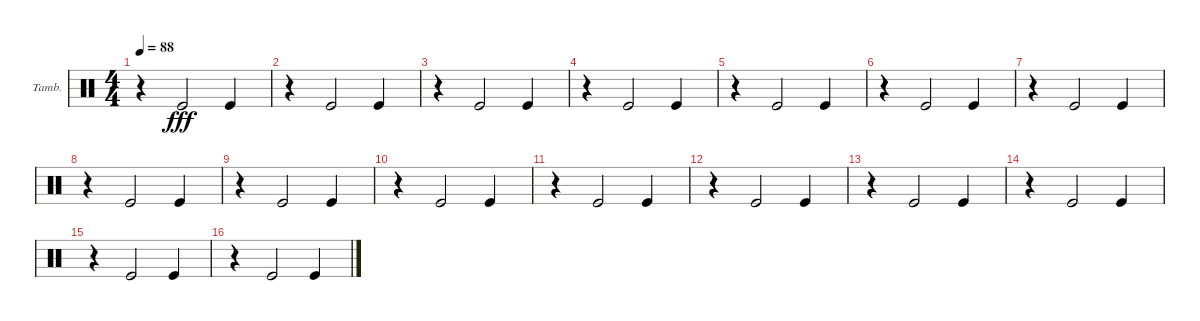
\defaultSystemsLayout 4
\bracketExtendMode groupsimilarinstruments
\firstSystemTrackNameOrientation horizontal
\otherSystemsTrackNameOrientation horizontal
\track ("Helders" "Tamb.") {instrument percussion}
\staff {score}
\articulation defaults
\ts (4 4)
\tempo 88
\clef neutral
\scale
0.472222
\ks c
r.4{dy fff} "Kick (hit)".2 "Kick (hit)".4 |
\scale
0.263889 r.4 "Kick (hit)".2 "Kick (hit)".4 |
\scale
0.263889 r.4 "Kick (hit)".2 "Kick (hit)".4 |
\scale
0.333333 r.4 "Kick (hit)".2 "Kick (hit)".4 |
\scale
0.333333 r.4 "Kick (hit)".2 "Kick (hit)".4 |
\scale
0.333333 r.4 "Kick (hit)".2 "Kick (hit)".4 |
\scale
0.333333 r.4 "Kick (hit)".2 "Kick (hit)".4 |
\scale
0.333333 r.4 "Kick (hit)".2 "Kick (hit)".4 |
\scale
0.333333 r.4 "Kick (hit)".2 "Kick (hit)".4 |
\scale
0.333333 r.4 "Kick (hit)".2 "Kick (hit)".4 |
\scale
0.333333 r.4 "Kick (hit)".2 "Kick (hit)".4 |
\scale
0.333333 r.4 "Kick (hit)".2 "Kick (hit)".4 |
\scale
0.333333 r.4 "Kick (hit)".2 "Kick (hit)".4 |
\scale
0.333333 r.4 "Kick (hit)".2 "Kick (hit)".4 |
\scale
0.333333 r.4 "Kick (hit)".2 "Kick (hit)".4 |
\scale
0.333333 r.4 "Kick (hit)".2 "Kick (hit)".4
